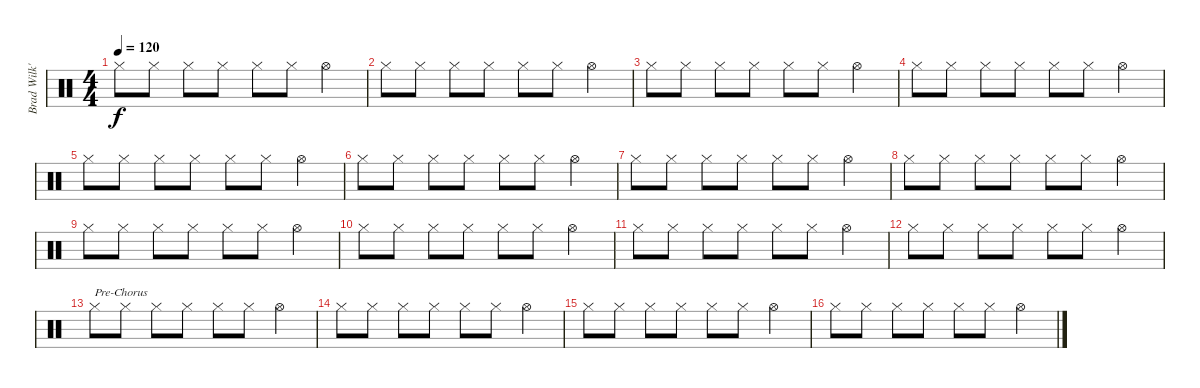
\track ("Brad Wilk's Hi Hat" "Brad Wilk'") {instrument percussion}
\staff {score}
\articulation defaults
\ts (4 4)
\tempo 120
\clef neutral
\ks c "Hi-Hat (closed)".8{dy f} "Hi-Hat (closed)".8 "Hi-Hat (closed)".8 "Hi-Hat (closed)".8 "Hi-Hat (closed)".8 "Hi-Hat (closed)".8 "Hi-Hat (open)".4
|
"Hi-Hat (closed)".8 "Hi-Hat (closed)".8 "Hi-Hat (closed)".8 "Hi-Hat (closed)".8 "Hi-Hat (closed)".8 "Hi-Hat (closed)".8 "Hi-Hat (open)".4 |
"Hi-Hat (closed)".8 "Hi-Hat (closed)".8 "Hi-Hat (closed)".8 "Hi-Hat (closed)".8 "Hi-Hat (closed)".8 "Hi-Hat (closed)".8 "Hi-Hat (open)".4 |
"Hi-Hat (closed)".8 "Hi-Hat (closed)".8 "Hi-Hat (closed)".8 "Hi-Hat (closed)".8 "Hi-Hat (closed)".8 "Hi-Hat (closed)".8 "Hi-Hat (open)".4 |
"Hi-Hat (closed)".8 "Hi-Hat (closed)".8 "Hi-Hat (closed)".8 "Hi-Hat (closed)".8 "Hi-Hat (closed)".8 "Hi-Hat (closed)".8 "Hi-Hat (open)".4 |
"Hi-Hat (closed)".8 "Hi-Hat (closed)".8 "Hi-Hat (closed)".8 "Hi-Hat (closed)".8 "Hi-Hat (closed)".8 "Hi-Hat (closed)".8 "Hi-Hat (open)".4 |
"Hi-Hat (closed)".8 "Hi-Hat (closed)".8 "Hi-Hat (closed)".8 "Hi-Hat (closed)".8 "Hi-Hat (closed)".8 "Hi-Hat (closed)".8 "Hi-Hat (open)".4 |
"Hi-Hat (closed)".8 "Hi-Hat (closed)".8 "Hi-Hat (closed)".8 "Hi-Hat (closed)".8 "Hi-Hat (closed)".8 "Hi-Hat (closed)".8 "Hi-Hat (open)".4 |
"Hi-Hat (closed)".8 "Hi-Hat (closed)".8 "Hi-Hat (closed)".8 "Hi-Hat (closed)".8 "Hi-Hat (closed)".8 "Hi-Hat (closed)".8 "Hi-Hat (open)".4 |
"Hi-Hat (closed)".8 "Hi-Hat (closed)".8 "Hi-Hat (closed)".8 "Hi-Hat (closed)".8 "Hi-Hat (closed)".8 "Hi-Hat (closed)".8 "Hi-Hat (open)".4 |
"Hi-Hat (closed)".8 "Hi-Hat (closed)".8 "Hi-Hat (closed)".8 "Hi-Hat (closed)".8 "Hi-Hat (closed)".8 "Hi-Hat (closed)".8 "Hi-Hat (open)".4 |
"Hi-Hat (closed)".8 "Hi-Hat (closed)".8 "Hi-Hat (closed)".8 "Hi-Hat (closed)".8 "Hi-Hat (closed)".8 "Hi-Hat (closed)".8 "Hi-Hat (open)".4 |
"Hi-Hat (closed)".8{txt "Pre-Chorus"} "Hi-Hat (closed)".8 "Hi-Hat (closed)".8 "Hi-Hat (closed)".8 "Hi-Hat (closed)".8 "Hi-Hat (closed)".8 "Hi-Hat (open)".4 |
"Hi-Hat (closed)".8 "Hi-Hat (closed)".8 "Hi-Hat (closed)".8 "Hi-Hat (closed)".8 "Hi-Hat (closed)".8 "Hi-Hat (closed)".8 "Hi-Hat (open)".4 |
"Hi-Hat (closed)".8 "Hi-Hat (closed)".8 "Hi-Hat (closed)".8 "Hi-Hat (closed)".8 "Hi-Hat (closed)".8 "Hi-Hat (closed)".8 "Hi-Hat (open)".4 |
"Hi-Hat (closed)".8 "Hi-Hat (closed)".8 "Hi-Hat (closed)".8 "Hi-Hat (closed)".8 "Hi-Hat (closed)".8 "Hi-Hat (closed)".8 "Hi-Hat (open)".4
